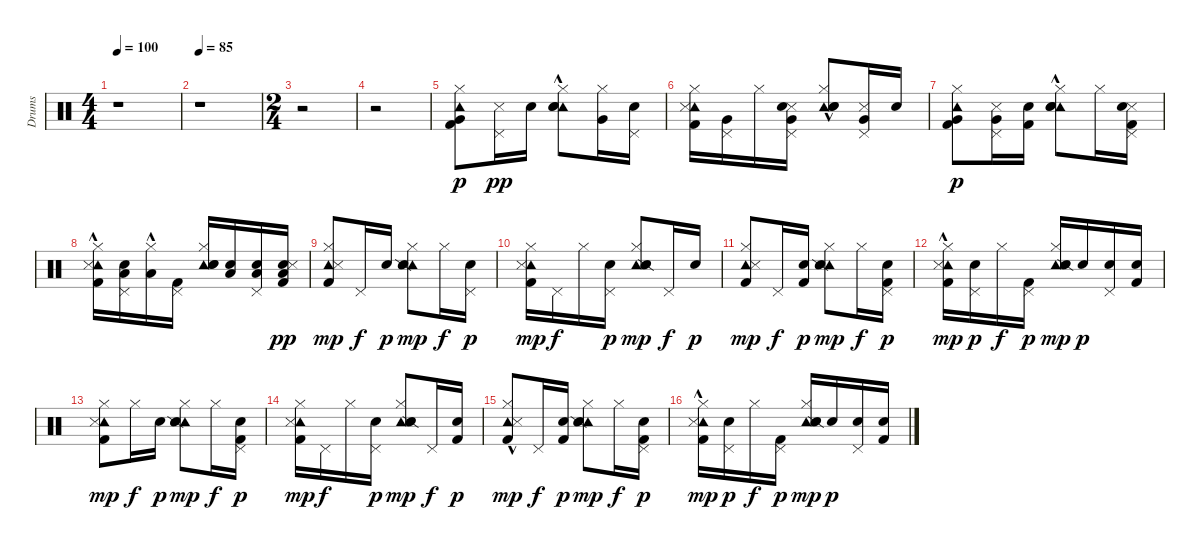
\track ("Drums" "Drums") {instrument percussion}
\staff {score}
\articulation defaults
\ts (4 4)
\tempo 100
\clef neutral
\ks c
r.1{dy p} |
\tempo 85
r.1 |
\ts (2 4)
r.2 |
r.2 |
("Tambourine (hit)" "Very Low Tom (hit)" "Kick (hit) 2" "Hi-Hat (closed)").8 ("Metronome (hit)" "Pedal Hi-Hat (hit)").16{dy pp} "Electric Snare (hit)".16 ("Tambourine (hit)" "Snare (hit) 2" "Hi-Hat (closed)" "Electric Snare (hit)"{hac}).8 ("Hi-Hat (closed)" "Very Low Tom (hit)").16 ("Electric Snare (hit)" "Pedal Hi-Hat (hit)").16 |
("Tambourine (hit)" "Metronome (hit)" "Kick (hit) 2" "Hi-Hat (closed)").16 ("Pedal Hi-Hat (hit)" "Very Low Tom (hit)").16 "Hi-Hat (closed)".16 ("Very Low Tom (hit)" "Metronome (hit)" "Electric Snare (hit)" "Pedal Hi-Hat (hit)").16 ("Tambourine (hit)" "Electric Snare (hit)"{hac} "Snare (hit) 2" "Hi-Hat (closed)").8 ("Very Low Tom (hit)" "Pedal Hi-Hat (hit)" "Metronome (hit)").16 "Electric Snare (hit)".16 |
("Tambourine (hit)" "Very Low Tom (hit)" "Kick (hit) 2" "Hi-Hat (closed)").8{dy p} ("Very Low Tom (hit)" "Metronome (hit)" "Pedal Hi-Hat (hit)").16 ("Electric Snare (hit)" "Kick (hit) 2").16 ("Tambourine (hit)" "Snare (hit) 2" "Electric Snare (hit)"{hac} "Hi-Hat (closed)").8 "Hi-Hat (closed)".16 ("Metronome (hit)" "Electric Snare (hit)" "Kick (hit) 2" "Pedal Hi-Hat (hit)").16 |
("Tambourine (hit)" "Metronome (hit)" "Kick (hit) 2"{hac} "Hi-Hat (closed)").16 ("Low Floor Tom (hit)" "Snare (hit) 2" "Pedal Hi-Hat (hit)").16 ("Low Floor Tom (hit)"{hac} "Hi-Hat (closed)").16 ("Kick (hit) 2" "Pedal Hi-Hat (hit)").16 ("Tambourine (hit)" "Snare (hit) 2" "Electric Snare (hit)" "Hi-Hat (closed)").16 ("Low Floor Tom (hit)" "Electric Snare (hit)").16 ("Electric Snare (hit)" "Pedal Hi-Hat (hit)" "Low Floor Tom (hit)").16 ("Low Floor Tom (hit)" "Kick (hit) 2" "Electric Snare (hit)" "Metronome (hit)").16{dy pp} |
("Tambourine (hit)" "Metronome (hit)" "Kick (hit) 2" "Hi-Hat (closed)").8{dy mp} "Pedal Hi-Hat (hit)".16{dy f} "Electric Snare (hit)".16{dy p} ("Tambourine (hit)" "Snare (hit) 2" "Hi-Hat (closed)" "Snare (side stick) 2").8{dy mp} "Hi-Hat (closed)".16{dy f} ("Electric Snare (hit)" "Pedal Hi-Hat (hit)").16{dy p} |
("Tambourine (hit)" "Metronome (hit)" "Kick (hit) 2" "Hi-Hat (closed)").16{dy mp} "Pedal Hi-Hat (hit)".16{dy f} "Hi-Hat (closed)".16 ("Electric Snare (hit)" "Pedal Hi-Hat (hit)").16{dy p} ("Tambourine (hit)" "Snare (side stick) 2" "Snare (hit) 2" "Hi-Hat (closed)").8{dy mp} "Pedal Hi-Hat (hit)".16{dy f} "Electric Snare (hit)".16{dy p} |
("Tambourine (hit)" "Metronome (hit)" "Kick (hit) 2" "Hi-Hat (closed)").8{dy mp} "Pedal Hi-Hat (hit)".16{dy f} ("Electric Snare (hit)" "Kick (hit) 2").16{dy p} ("Tambourine (hit)" "Snare (hit) 2" "Snare (side stick) 2" "Hi-Hat (closed)").8{dy mp} "Hi-Hat (closed)".16{dy f} ("Electric Snare (hit)" "Kick (hit) 2" "Pedal Hi-Hat (hit)").16{dy p} |
("Tambourine (hit)" "Metronome (hit)" "Kick (hit) 2"{hac} "Hi-Hat (closed)").16{dy mp} ("Snare (hit) 2" "Pedal Hi-Hat (hit)").16{dy p} "Hi-Hat (closed)".16{dy f} ("Kick (hit) 2" "Pedal Hi-Hat (hit)").16{dy p} ("Tambourine (hit)" "Snare (hit) 2" "Snare (side stick) 2" "Hi-Hat (closed)").16{dy mp} "Electric Snare (hit)".16{dy p} ("Electric Snare (hit)" "Pedal Hi-Hat (hit)").16 ("Kick (hit) 2" "Electric Snare (hit)").16 |
("Tambourine (hit)" "Metronome (hit)" "Kick (hit) 2" "Hi-Hat (closed)").8{dy mp} "Hi-Hat (closed)".16{dy f} "Electric Snare (hit)".16{dy p} ("Tambourine (hit)" "Snare (hit) 2" "Hi-Hat (closed)" "Snare (side stick) 2").8{dy mp} "Hi-Hat (closed)".16{dy f} ("Kick (hit) 2" "Electric Snare (hit)" "Pedal Hi-Hat (hit)").16{dy p} |
("Tambourine (hit)" "Metronome (hit)" "Kick (hit) 2" "Hi-Hat (closed)").16{dy mp} "Pedal Hi-Hat (hit)".16{dy f} "Hi-Hat (closed)".16 ("Electric Snare (hit)" "Pedal Hi-Hat (hit)").16{dy p} ("Tambourine (hit)" "Snare (side stick) 2" "Snare (hit) 2" "Hi-Hat (closed)").8{dy mp} "Pedal Hi-Hat (hit)".16{dy f} ("Kick (hit) 2" "Electric Snare (hit)").16{dy p} |
("Tambourine (hit)" "Metronome (hit)" "Kick (hit) 2"{hac} "Hi-Hat (closed)").8{dy mp} "Pedal Hi-Hat (hit)".16{dy f} ("Electric Snare (hit)" "Kick (hit) 2").16{dy p} ("Tambourine (hit)" "Snare (hit) 2" "Snare (side stick) 2" "Hi-Hat (closed)").8{dy mp} "Hi-Hat (closed)".16{dy f} ("Electric Snare (hit)" "Kick (hit) 2" "Pedal Hi-Hat (hit)").16{dy p} |
("Tambourine (hit)" "Metronome (hit)" "Kick (hit) 2"{hac} "Hi-Hat (closed)").16{dy mp} ("Snare (hit) 2" "Pedal Hi-Hat (hit)").16{dy p} "Hi-Hat (closed)".16{dy f} ("Kick (hit) 2" "Pedal Hi-Hat (hit)").16{dy p} ("Tambourine (hit)" "Snare (hit) 2" "Snare (side stick) 2" "Hi-Hat (closed)").16{dy mp} "Electric Snare (hit)".16{dy p} ("Electric Snare (hit)" "Pedal Hi-Hat (hit)").16 ("Kick (hit) 2" "Electric Snare (hit)").16
